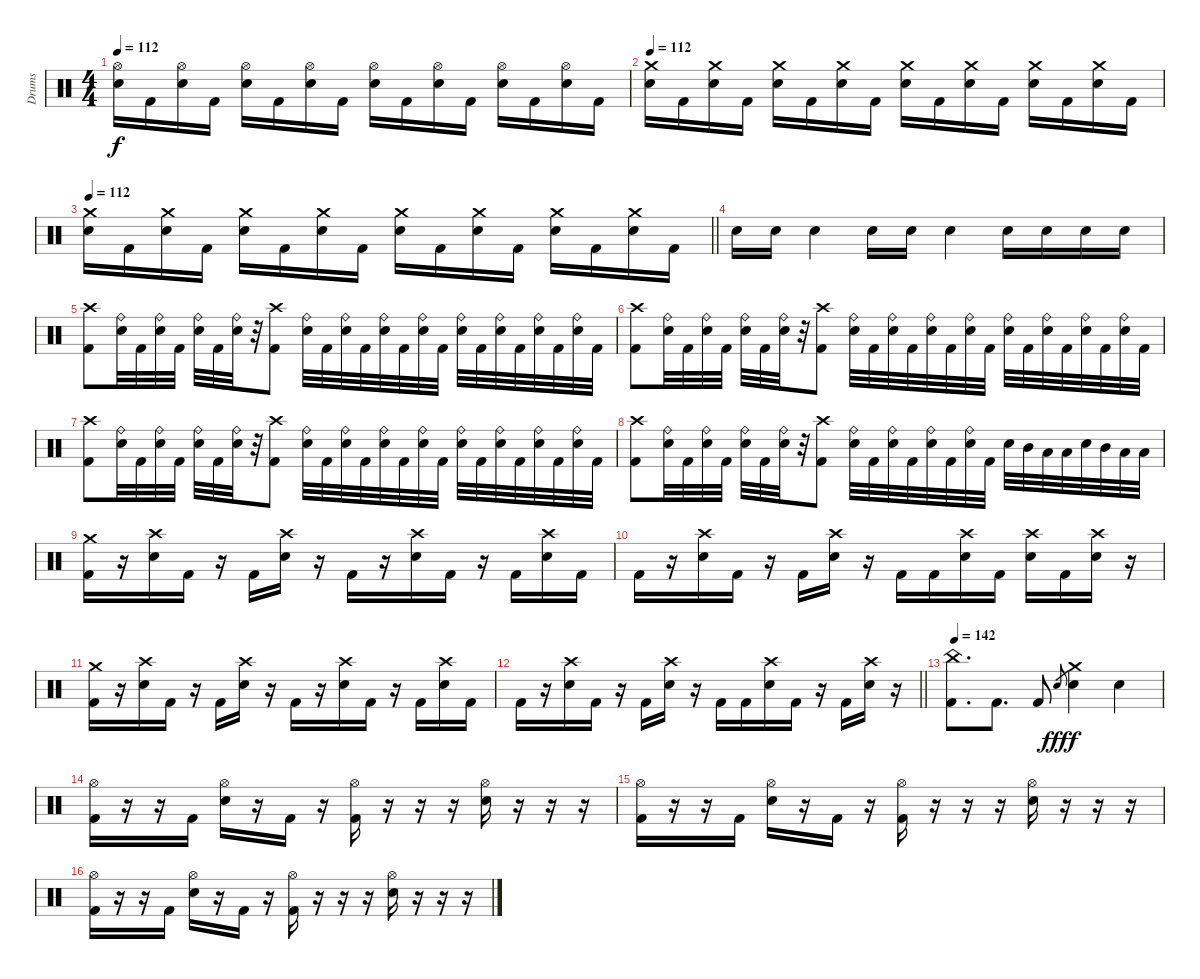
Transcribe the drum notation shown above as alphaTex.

\track ("Drums" "Drums") {instrument percussion}
\staff
\articulation defaults
\ts (4 4)
\tempo 112
\clef neutral
\ks c
("Hi-Hat (open)" "Snare (hit) 2").16{dy f} "Kick (hit) 2".16 ("Hi-Hat (open)" "Snare (hit) 2").16 "Kick (hit) 2".16 ("Hi-Hat (open)" "Snare (hit) 2").16 "Kick (hit) 2".16 ("Hi-Hat (open)" "Snare (hit) 2").16 "Kick (hit) 2".16 ("Hi-Hat (open)" "Snare (hit) 2").16 "Kick (hit) 2".16 ("Hi-Hat (open)" "Snare (hit) 2").16 "Kick (hit) 2".16 ("Hi-Hat (open)" "Snare (hit) 2").16 "Kick (hit) 2".16 ("Hi-Hat (open)" "Snare (hit) 2").16 "Kick (hit) 2".16 |
\tempo 112
("Crash medium (hit)" "Snare (hit) 2").16 "Kick (hit) 2".16 ("Crash medium (hit)" "Snare (hit) 2").16 "Kick (hit) 2".16 ("Crash medium (hit)" "Snare (hit) 2").16 "Kick (hit) 2".16 ("Crash medium (hit)" "Snare (hit) 2").16 "Kick (hit) 2".16 ("Crash medium (hit)" "Snare (hit) 2").16 "Kick (hit) 2".16 ("Crash medium (hit)" "Snare (hit) 2").16 "Kick (hit) 2".16 ("Crash medium (hit)" "Snare (hit) 2").16 "Kick (hit) 2".16 ("Crash medium (hit)" "Snare (hit) 2").16 "Kick (hit) 2".16 |
\tempo 112
\barLineRight lightlight
("Crash medium (hit)" "Snare (hit) 2").16 "Kick (hit) 2".16 ("Crash medium (hit)" "Snare (hit) 2").16 "Kick (hit) 2".16 ("Crash medium (hit)" "Snare (hit) 2").16 "Kick (hit) 2".16 ("Crash medium (hit)" "Snare (hit) 2").16 "Kick (hit) 2".16 ("Crash medium (hit)" "Snare (hit) 2").16 "Kick (hit) 2".16 ("Crash medium (hit)" "Snare (hit) 2").16 "Kick (hit) 2".16 ("Crash medium (hit)" "Snare (hit) 2").16 "Kick (hit) 2".16 ("Crash medium (hit)" "Snare (hit) 2").16 "Kick (hit) 2".16 |
\section ("" "")
"Snare (hit) 2".16 "Snare (hit) 2".16 "Snare (hit) 2".4 "Snare (hit) 2".16 "Snare (hit) 2".16 "Snare (hit) 2".4 "Snare (hit) 2".16 "Snare (hit) 2".16 "Snare (hit) 2".16 "Snare (hit) 2".16 |
("Crash high (hit)" "Kick (hit) 2").8 ("Ride (bell)" "Snare (hit) 2").32 "Kick (hit) 2".32 ("Ride (bell)" "Snare (hit) 2").32 "Kick (hit) 2".32 ("Ride (bell)" "Snare (hit) 2").32 "Kick (hit) 2".32 ("Ride (bell)" "Snare (hit) 2").32 r.32 ("Crash high (hit)" "Kick (hit) 2").8 ("Ride (bell)" "Snare (hit) 2").32 "Kick (hit) 2".32 ("Ride (bell)" "Snare (hit) 2").32 "Kick (hit) 2".32 ("Ride (bell)" "Snare (hit) 2").32 "Kick (hit) 2".32 ("Ride (bell)" "Snare (hit) 2").32 "Kick (hit) 2".32 ("Ride (bell)" "Snare (hit) 2").32 "Kick (hit) 2".32 ("Ride (bell)" "Snare (hit) 2").32 "Kick (hit) 2".32 ("Ride (bell)" "Snare (hit) 2").32 "Kick (hit) 2".32 ("Ride (bell)" "Snare (hit) 2").32 "Kick (hit) 2".32 |
("Crash high (hit)" "Kick (hit) 2").8 ("Ride (bell)" "Snare (hit) 2").32 "Kick (hit) 2".32 ("Ride (bell)" "Snare (hit) 2").32 "Kick (hit) 2".32 ("Ride (bell)" "Snare (hit) 2").32 "Kick (hit) 2".32 ("Ride (bell)" "Snare (hit) 2").32 r.32 ("Crash high (hit)" "Kick (hit) 2").8 ("Ride (bell)" "Snare (hit) 2").32 "Kick (hit) 2".32 ("Ride (bell)" "Snare (hit) 2").32 "Kick (hit) 2".32 ("Ride (bell)" "Snare (hit) 2").32 "Kick (hit) 2".32 ("Ride (bell)" "Snare (hit) 2").32 "Kick (hit) 2".32 ("Ride (bell)" "Snare (hit) 2").32 "Kick (hit) 2".32 ("Ride (bell)" "Snare (hit) 2").32 "Kick (hit) 2".32 ("Ride (bell)" "Snare (hit) 2").32 "Kick (hit) 2".32 ("Ride (bell)" "Snare (hit) 2").32 "Kick (hit) 2".32 |
("Crash high (hit)" "Kick (hit) 2").8 ("Ride (bell)" "Snare (hit) 2").32 "Kick (hit) 2".32 ("Ride (bell)" "Snare (hit) 2").32 "Kick (hit) 2".32 ("Ride (bell)" "Snare (hit) 2").32 "Kick (hit) 2".32 ("Ride (bell)" "Snare (hit) 2").32 r.32 ("Crash high (hit)" "Kick (hit) 2").8 ("Ride (bell)" "Snare (hit) 2").32 "Kick (hit) 2".32 ("Ride (bell)" "Snare (hit) 2").32 "Kick (hit) 2".32 ("Ride (bell)" "Snare (hit) 2").32 "Kick (hit) 2".32 ("Ride (bell)" "Snare (hit) 2").32 "Kick (hit) 2".32 ("Ride (bell)" "Snare (hit) 2").32 "Kick (hit) 2".32 ("Ride (bell)" "Snare (hit) 2").32 "Kick (hit) 2".32 ("Ride (bell)" "Snare (hit) 2").32 "Kick (hit) 2".32 ("Ride (bell)" "Snare (hit) 2").32 "Kick (hit) 2".32 |
("Crash high (hit)" "Kick (hit) 2").8 ("Ride (bell)" "Snare (hit) 2").32 "Kick (hit) 2".32 ("Ride (bell)" "Snare (hit) 2").32 "Kick (hit) 2".32 ("Ride (bell)" "Snare (hit) 2").32 "Kick (hit) 2".32 ("Ride (bell)" "Snare (hit) 2").32 r.32 ("Crash high (hit)" "Kick (hit) 2").8 ("Ride (bell)" "Snare (hit) 2").32 "Kick (hit) 2".32 ("Ride (bell)" "Snare (hit) 2").32 "Kick (hit) 2".32 ("Ride (bell)" "Snare (hit) 2").32 "Kick (hit) 2".32 ("Ride (bell)" "Snare (hit) 2").32 "Kick (hit) 2".32 "Snare (hit) 2".32 "Mid Tom (hit)".32 "Low Tom (hit)".32 "Low Floor Tom (hit)".32 "Snare (hit) 2".32 "Mid Tom (hit)".32 "Low Tom (hit)".32 "Low Floor Tom (hit)".32 |
("Crash medium (hit)" "Kick (hit) 2").16 r.16 ("Crash high (hit)" "Snare (hit) 2").16 "Kick (hit) 2".16 r.16 "Kick (hit) 2".16 ("Crash high (hit)" "Snare (hit) 2").16 r.16 "Kick (hit) 2".16 r.16 ("Crash high (hit)" "Snare (hit) 2").16 "Kick (hit) 2".16 r.16 "Kick (hit) 2".16 ("Crash high (hit)" "Snare (hit) 2").16 "Kick (hit) 2".16 |
"Kick (hit) 2".16 r.16 ("Crash high (hit)" "Snare (hit) 2").16 "Kick (hit) 2".16 r.16 "Kick (hit) 2".16 ("Crash high (hit)" "Snare (hit) 2").16 r.16 "Kick (hit) 2".16 "Kick (hit) 2".16 ("Crash high (hit)" "Snare (hit) 2").16 "Kick (hit) 2".16 ("Crash high (hit)" "Snare (hit) 2").16 "Kick (hit) 2".16 ("Crash high (hit)" "Snare (hit) 2").16 r.16 |
("Crash medium (hit)" "Kick (hit) 2").16 r.16 ("Crash high (hit)" "Snare (hit) 2").16 "Kick (hit) 2".16 r.16 "Kick (hit) 2".16 ("Crash high (hit)" "Snare (hit) 2").16 r.16 "Kick (hit) 2".16 r.16 ("Crash high (hit)" "Snare (hit) 2").16 "Kick (hit) 2".16 r.16 "Kick (hit) 2".16 ("Crash high (hit)" "Snare (hit) 2").16 "Kick (hit) 2".16 |
\barLineRight lightlight "Kick (hit) 2".16
r.16 ("Crash high (hit)" "Snare (hit) 2").16 "Kick (hit) 2".16 r.16 "Kick (hit) 2".16 ("Crash high (hit)" "Snare (hit) 2").16 r.16 "Kick (hit) 2".16 "Kick (hit) 2".16 ("Crash high (hit)" "Snare (hit) 2").16 "Kick (hit) 2".16 r.16 "Kick (hit) 2".16 ("Crash high (hit)" "Snare (hit) 2").16 r.16 |
\section ("" "")
\tempo 142
("China (hit)" "Kick (hit) 2").8{d} "Kick (hit) 2".8{d} "Kick (hit) 2".8 "Snare (hit) 2"{h}.8{gr dy fff} ("Crash medium (hit)" "Snare (hit) 2").4{dy f} "Snare (hit) 2".4 |
("Hi-Hat (open)" "Kick (hit) 2").16 r.16 r.16 "Kick (hit) 2".16 ("Hi-Hat (open)" "Snare (hit) 2").16 r.16 "Kick (hit) 2".16 r.16 ("Hi-Hat (open)" "Kick (hit) 2").16 r.16 r.16 r.16 ("Hi-Hat (open)" "Snare (hit) 2").16 r.16 r.16 r.16 |
("Hi-Hat (open)" "Kick (hit) 2").16 r.16 r.16 "Kick (hit) 2".16 ("Hi-Hat (open)" "Snare (hit) 2").16 r.16 "Kick (hit) 2".16 r.16 ("Hi-Hat (open)" "Kick (hit) 2").16 r.16 r.16 r.16 ("Hi-Hat (open)" "Snare (hit) 2").16 r.16 r.16 r.16 |
("Hi-Hat (open)" "Kick (hit) 2").16 r.16 r.16 "Kick (hit) 2".16 ("Hi-Hat (open)" "Snare (hit) 2").16 r.16 "Kick (hit) 2".16 r.16 ("Hi-Hat (open)" "Kick (hit) 2").16 r.16 r.16 r.16 ("Hi-Hat (open)" "Snare (hit) 2").16 r.16 r.16 r.16
